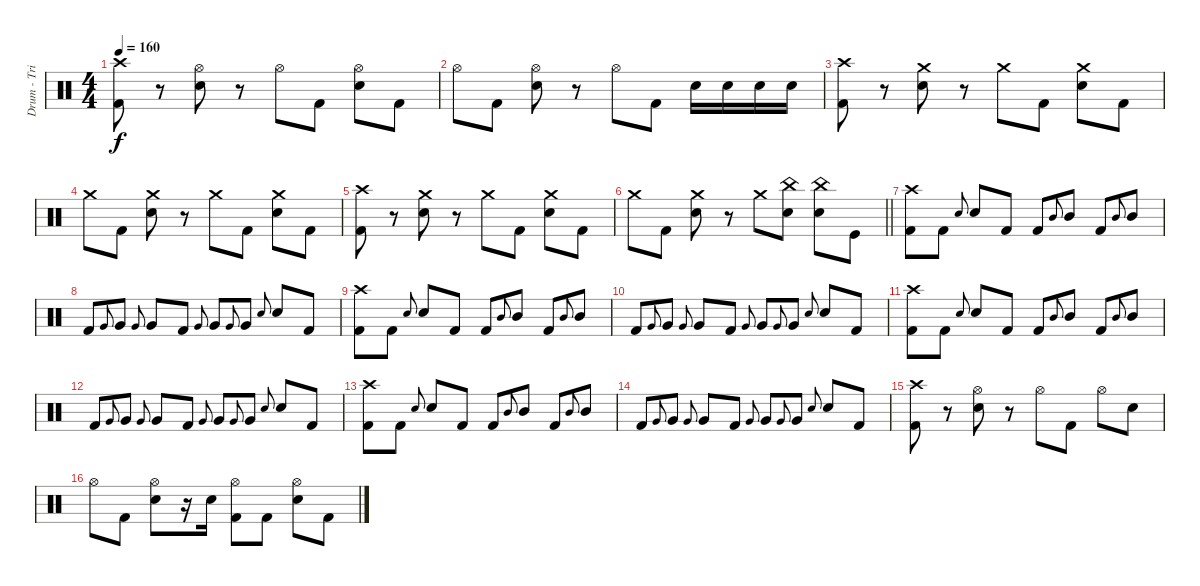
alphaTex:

\track ("Drum - Trian" "Drum - Tri") {instrument percussion}
\staff {score}
\articulation defaults
\ts (4 4)
\tempo 160
\clef neutral
\ks c
("Crash high (hit)" "Kick (hit) 2").8{dy f} r.8 ("Hi-Hat (open)" "Electric Snare (hit)").8 r.8 "Hi-Hat (open)".8 "Kick (hit) 2".8 ("Hi-Hat (open)" "Electric Snare (hit)").8 "Kick (hit) 2".8 |
"Hi-Hat (open)".8 "Kick (hit) 2".8 ("Hi-Hat (open)" "Electric Snare (hit)").8 r.8 "Hi-Hat (open)".8 "Kick (hit) 2".8 "Electric Snare (hit)".16 "Electric Snare (hit)".16 "Electric Snare (hit)".16 "Electric Snare (hit)".16 |
("Crash high (hit)" "Kick (hit) 2").8 r.8 ("Crash medium (hit)" "Electric Snare (hit)").8 r.8 "Crash medium (hit)".8 "Kick (hit) 2".8 ("Crash medium (hit)" "Electric Snare (hit)").8 "Kick (hit) 2".8 |
"Crash medium (hit)".8 "Kick (hit) 2".8 ("Crash medium (hit)" "Electric Snare (hit)").8 r.8 "Crash medium (hit)".8 "Kick (hit) 2".8 ("Crash medium (hit)" "Electric Snare (hit)").8 "Kick (hit) 2".8 |
("Crash high (hit)" "Kick (hit) 2").8 r.8 ("Crash medium (hit)" "Electric Snare (hit)").8 r.8 "Crash medium (hit)".8 "Kick (hit) 2".8 ("Crash medium (hit)" "Electric Snare (hit)").8 "Kick (hit) 2".8 |
\barLineRight lightlight "Crash medium (hit)".8 "Kick (hit) 2".8
("Crash medium (hit)" "Electric Snare (hit)").8 r.8 "Crash medium (hit)".8 ("China (hit)" "Electric Snare (hit)").8 ("China (hit)" "Electric Snare (hit)").8 "Kick (hit)".8 |
("Crash high (hit)" "Kick (hit) 2").8 "Kick (hit) 2".8 "Electric Snare (hit)".8{gr onbeat} "Electric Snare (hit)".8 "Kick (hit) 2".8 "Kick (hit) 2".8 "Mid Tom (hit)".8{gr onbeat} "Mid Tom (hit)".8 "Kick (hit) 2".8 "Mid Tom (hit)".8{gr onbeat} "Mid Tom (hit)".8 |
"Kick (hit) 2".8 "Very Low Tom (hit)".8{gr onbeat} "Very Low Tom (hit)".8 "Very Low Tom (hit)".8{gr onbeat} "Very Low Tom (hit)".8 "Kick (hit) 2".8 "Very Low Tom (hit)".8{gr onbeat} "Very Low Tom (hit)".8 "Very Low Tom (hit)".8{gr onbeat} "Very Low Tom (hit)".8 "Electric Snare (hit)".8{gr onbeat} "Electric Snare (hit)".8 "Kick (hit) 2".8 |
("Crash high (hit)" "Kick (hit) 2").8 "Kick (hit) 2".8 "Electric Snare (hit)".8{gr onbeat} "Electric Snare (hit)".8 "Kick (hit) 2".8 "Kick (hit) 2".8 "Mid Tom (hit)".8{gr onbeat} "Mid Tom (hit)".8 "Kick (hit) 2".8 "Mid Tom (hit)".8{gr onbeat} "Mid Tom (hit)".8 |
"Kick (hit) 2".8 "Very Low Tom (hit)".8{gr onbeat} "Very Low Tom (hit)".8 "Very Low Tom (hit)".8{gr onbeat} "Very Low Tom (hit)".8 "Kick (hit) 2".8 "Very Low Tom (hit)".8{gr onbeat} "Very Low Tom (hit)".8 "Very Low Tom (hit)".8{gr onbeat} "Very Low Tom (hit)".8 "Electric Snare (hit)".8{gr onbeat} "Electric Snare (hit)".8 "Kick (hit) 2".8 |
("Crash high (hit)" "Kick (hit) 2").8 "Kick (hit) 2".8 "Electric Snare (hit)".8{gr onbeat} "Electric Snare (hit)".8 "Kick (hit) 2".8 "Kick (hit) 2".8 "Mid Tom (hit)".8{gr onbeat} "Mid Tom (hit)".8 "Kick (hit) 2".8 "Mid Tom (hit)".8{gr onbeat} "Mid Tom (hit)".8 |
"Kick (hit) 2".8 "Very Low Tom (hit)".8{gr onbeat} "Very Low Tom (hit)".8 "Very Low Tom (hit)".8{gr onbeat} "Very Low Tom (hit)".8 "Kick (hit) 2".8 "Very Low Tom (hit)".8{gr onbeat} "Very Low Tom (hit)".8 "Very Low Tom (hit)".8{gr onbeat} "Very Low Tom (hit)".8 "Electric Snare (hit)".8{gr onbeat} "Electric Snare (hit)".8 "Kick (hit) 2".8 |
("Crash high (hit)" "Kick (hit) 2").8 "Kick (hit) 2".8 "Electric Snare (hit)".8{gr onbeat} "Electric Snare (hit)".8 "Kick (hit) 2".8 "Kick (hit) 2".8 "Mid Tom (hit)".8{gr onbeat} "Mid Tom (hit)".8 "Kick (hit) 2".8 "Mid Tom (hit)".8{gr onbeat} "Mid Tom (hit)".8 |
"Kick (hit) 2".8 "Very Low Tom (hit)".8{gr onbeat} "Very Low Tom (hit)".8 "Very Low Tom (hit)".8{gr onbeat} "Very Low Tom (hit)".8 "Kick (hit) 2".8 "Very Low Tom (hit)".8{gr onbeat} "Very Low Tom (hit)".8 "Very Low Tom (hit)".8{gr onbeat} "Very Low Tom (hit)".8 "Electric Snare (hit)".8{gr onbeat} "Electric Snare (hit)".8 "Kick (hit) 2".8 |
("Crash high (hit)" "Kick (hit) 2").8 r.8 ("Hi-Hat (open)" "Electric Snare (hit)").8 r.8 "Hi-Hat (open)".8 "Kick (hit) 2".8 "Hi-Hat (open)".8 "Electric Snare (hit)".8 |
"Hi-Hat (open)".8 "Kick (hit) 2".8 ("Hi-Hat (open)" "Electric Snare (hit)").8 r.16 "Electric Snare (hit)".16 ("Hi-Hat (open)" "Kick (hit) 2").8 "Kick (hit) 2".8 ("Hi-Hat (open)" "Electric Snare (hit)").8 "Kick (hit) 2".8
